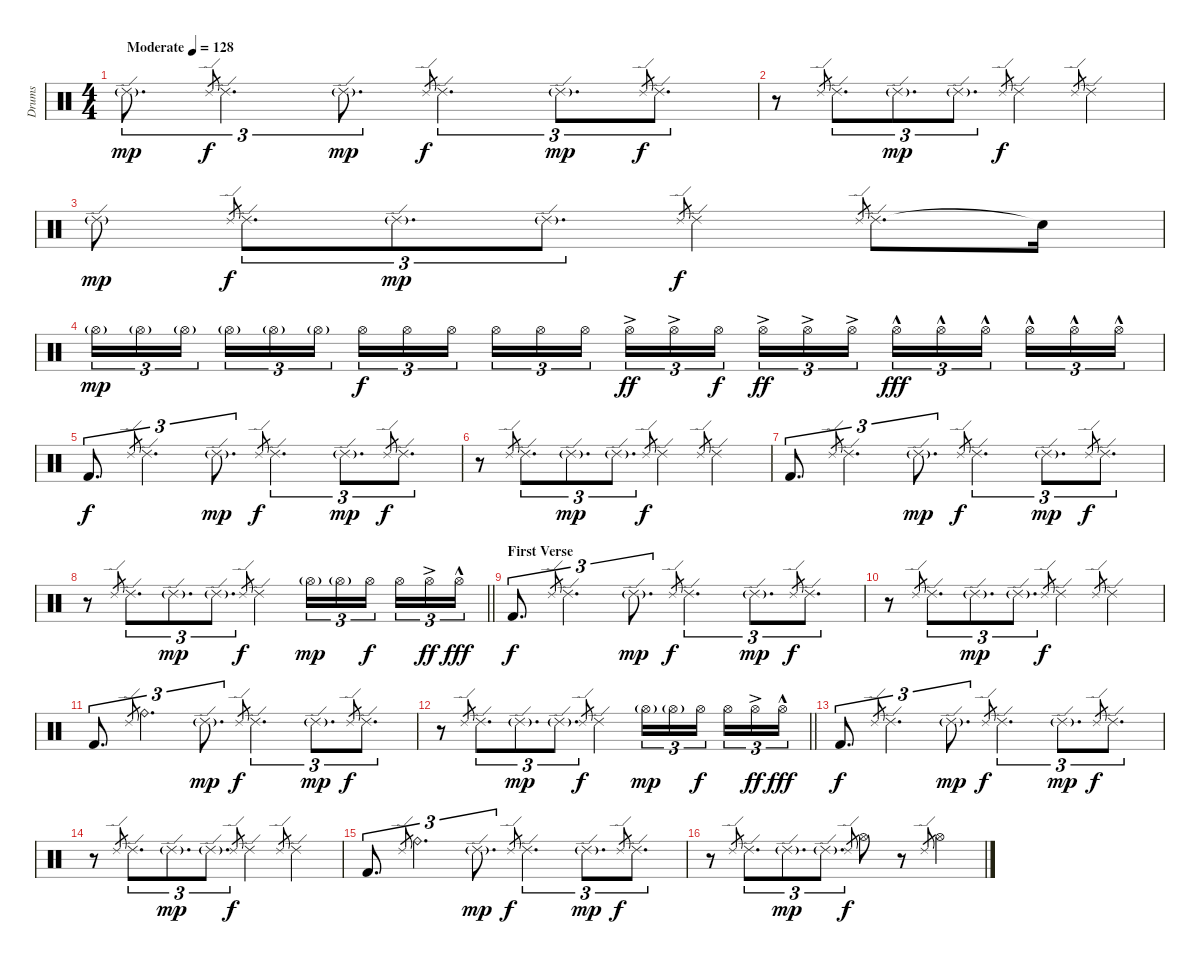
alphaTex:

\track ("Drums" "Drums") {instrument percussion}
\staff {score}
\articulation defaults
\ts (4 4)
\tempo (128 "Moderate")
\clef neutral
\ks c "Ride (edge) 2"{g}.8{d tu (3 2) dy mp volume 1} "Ride (edge) 2".8{gr dy f} "Ride (edge) 2".4{d tu (3 2) volume 9} "Ride (edge) 2"{g}.8{d tu (3 2) dy mp} "Ride (edge) 2".8{gr dy f} "Ride (edge) 2".4{d tu (3 2)} "Ride (edge) 2"{g}.8{d tu (3 2) dy mp} "Ride (edge) 2".8{gr dy f} "Ride (edge) 2".8{d tu (3 2)}
|
r.8 "Ride (edge) 2".8{gr} "Ride (edge) 2".8{d tu (3 2)} "Ride (edge) 2"{g}.8{d tu (3 2) dy mp} "Ride (edge) 2"{g}.8{d tu (3 2)} "Ride (edge) 2".8{gr dy f} "Ride (edge) 2".4 "Ride (edge) 2".8{gr} "Ride (edge) 2".4 |
"Ride (edge) 2"{g}.8{dy mp} "Ride (edge) 2".8{gr dy f} "Ride (edge) 2".8{d tu (3 2)} "Ride (edge) 2"{g}.8{d tu (3 2) dy mp} "Ride (edge) 2"{g}.8{d tu (3 2)} "Ride (edge) 2".8{gr dy f} "Ride (edge) 2".4 "Ride (edge) 2".8{gr} "Ride (edge) 2".8{d} "Snare (hit)"{t}.16{volume 6} |
"Hi-Hat (open)"{g}.16{tu (3 2) dy mp volume 11} "Hi-Hat (open)"{g}.16{tu (3 2)} "Hi-Hat (open)"{g}.16{tu (3 2) beam splitsecondary} "Hi-Hat (open)"{g}.16{tu (3 2)} "Hi-Hat (open)"{g}.16{tu (3 2)} "Hi-Hat (open)"{g}.16{tu (3 2)} "Hi-Hat (open)".16{tu (3 2) dy f} "Hi-Hat (open)".16{tu (3 2)} "Hi-Hat (open)".16{tu (3 2) beam splitsecondary} "Hi-Hat (open)".16{tu (3 2)} "Hi-Hat (open)".16{tu (3 2)} "Hi-Hat (open)".16{tu (3 2)} "Hi-Hat (open)"{ac}.16{tu (3 2) dy ff} "Hi-Hat (open)"{ac}.16{tu (3 2)} "Hi-Hat (open)".16{tu (3 2) dy f beam splitsecondary} "Hi-Hat (open)"{ac}.16{tu (3 2) dy ff} "Hi-Hat (open)"{ac}.16{tu (3 2)} "Hi-Hat (open)"{ac}.16{tu (3 2)} "Hi-Hat (open)"{hac}.16{tu (3 2) dy fff} "Hi-Hat (open)"{hac}.16{tu (3 2)} "Hi-Hat (open)"{hac}.16{tu (3 2) beam splitsecondary} "Hi-Hat (open)"{hac}.16{tu (3 2)} "Hi-Hat (open)"{hac}.16{tu (3 2)} "Hi-Hat (open)"{hac}.16{tu (3 2)} |
"Kick (hit) 2".8{d tu (3 2) dy f} "Ride (edge) 2".8{gr} "Ride (edge) 2".4{d tu (3 2)} "Ride (edge) 2"{g}.8{d tu (3 2) dy mp} "Ride (edge) 2".8{gr dy f} "Ride (edge) 2".4{d tu (3 2)} "Ride (edge) 2"{g}.8{d tu (3 2) dy mp} "Ride (edge) 2".8{gr dy f} "Ride (edge) 2".8{d tu (3 2)} |
r.8 "Ride (edge) 2".8{gr} "Ride (edge) 2".8{d tu (3 2)} "Ride (edge) 2"{g}.8{d tu (3 2) dy mp} "Ride (edge) 2"{g}.8{d tu (3 2)} "Ride (edge) 2".8{gr dy f} "Ride (edge) 2".4 "Ride (edge) 2".8{gr} "Ride (edge) 2".4 |
"Kick (hit) 2".8{d tu (3 2)} "Ride (edge) 2".8{gr} "Ride (edge) 2".4{d tu (3 2)} "Ride (edge) 2"{g}.8{d tu (3 2) dy mp} "Ride (edge) 2".8{gr dy f} "Ride (edge) 2".4{d tu (3 2)} "Ride (edge) 2"{g}.8{d tu (3 2) dy mp} "Ride (edge) 2".8{gr dy f} "Ride (edge) 2".8{d tu (3 2)} |
\barLineRight lightlight
r.8 "Ride (edge) 2".8{gr} "Ride (edge) 2".8{d tu (3 2)} "Ride (edge) 2"{g}.8{d tu (3 2) dy mp} "Ride (edge) 2"{g}.8{d tu (3 2)} "Ride (edge) 2".8{gr dy f} "Ride (edge) 2".4 "Hi-Hat (open)"{g}.16{tu (3 2) dy mp} "Hi-Hat (open)"{g}.16{tu (3 2)} "Hi-Hat (open)".16{tu (3 2) dy f beam splitsecondary} "Hi-Hat (open)".16{tu (3 2)} "Hi-Hat (open)"{ac}.16{tu (3 2) dy ff} "Hi-Hat (open)"{hac}.16{tu (3 2) dy fff} |
\section ("" "First Verse")
"Kick (hit) 2".8{d tu (3 2) dy f} "Ride (edge) 2".8{gr} "Ride (edge) 2".4{d tu (3 2)} "Ride (edge) 2"{g}.8{d tu (3 2) dy mp} "Ride (edge) 2".8{gr dy f} "Ride (edge) 2".4{d tu (3 2)} "Ride (edge) 2"{g}.8{d tu (3 2) dy mp} "Ride (edge) 2".8{gr dy f} "Ride (edge) 2".8{d tu (3 2)} |
r.8 "Ride (edge) 2".8{gr} "Ride (edge) 2".8{d tu (3 2)} "Ride (edge) 2"{g}.8{d tu (3 2) dy mp} "Ride (edge) 2"{g}.8{d tu (3 2)} "Ride (edge) 2".8{gr dy f} "Ride (edge) 2".4 "Ride (edge) 2".8{gr} "Ride (edge) 2".4 |
"Kick (hit) 2".8{d tu (3 2)} "Ride (edge) 2".8{gr} "Ride (bell)".4{d tu (3 2)} "Ride (edge) 2"{g}.8{d tu (3 2) dy mp} "Ride (edge) 2".8{gr dy f} "Ride (edge) 2".4{d tu (3 2)} "Ride (edge) 2"{g}.8{d tu (3 2) dy mp} "Ride (edge) 2".8{gr dy f} "Ride (edge) 2".8{d tu (3 2)} |
\barLineRight lightlight
r.8 "Ride (edge) 2".8{gr} "Ride (edge) 2".8{d tu (3 2)} "Ride (edge) 2"{g}.8{d tu (3 2) dy mp} "Ride (edge) 2"{g}.8{d tu (3 2)} "Ride (edge) 2".8{gr dy f} "Ride (edge) 2".4 "Hi-Hat (open)"{g}.16{tu (3 2) dy mp} "Hi-Hat (open)"{g}.16{tu (3 2)} "Hi-Hat (open)".16{tu (3 2) dy f beam splitsecondary} "Hi-Hat (open)".16{tu (3 2)} "Hi-Hat (open)"{ac}.16{tu (3 2) dy ff} "Hi-Hat (open)"{hac}.16{tu (3 2) dy fff} |
"Kick (hit) 2".8{d tu (3 2) dy f} "Ride (edge) 2".8{gr} "Ride (edge) 2".4{d tu (3 2)} "Ride (edge) 2"{g}.8{d tu (3 2) dy mp} "Ride (edge) 2".8{gr dy f} "Ride (edge) 2".4{d tu (3 2)} "Ride (edge) 2"{g}.8{d tu (3 2) dy mp} "Ride (edge) 2".8{gr dy f} "Ride (edge) 2".8{d tu (3 2)} |
r.8 "Ride (edge) 2".8{gr} "Ride (edge) 2".8{d tu (3 2)} "Ride (edge) 2"{g}.8{d tu (3 2) dy mp} "Ride (edge) 2"{g}.8{d tu (3 2)} "Ride (edge) 2".8{gr dy f} "Ride (edge) 2".4 "Ride (edge) 2".8{gr} "Ride (edge) 2".4 |
"Kick (hit) 2".8{d tu (3 2)} "Ride (edge) 2".8{gr} "Ride (bell)".4{d tu (3 2)} "Ride (edge) 2"{g}.8{d tu (3 2) dy mp} "Ride (edge) 2".8{gr dy f} "Ride (edge) 2".4{d tu (3 2)} "Ride (edge) 2"{g}.8{d tu (3 2) dy mp} "Ride (edge) 2".8{gr dy f} "Ride (edge) 2".8{d tu (3 2)} |
r.8 "Ride (edge) 2".8{gr} "Ride (edge) 2".8{d tu (3 2)} "Ride (edge) 2"{g}.8{d tu (3 2) dy mp} "Ride (edge) 2"{g}.8{d tu (3 2)} "Ride (edge) 2".8{gr dy f} "Hi-Hat (open)".8 r.8{volume 6} "Ride (edge) 2".8{gr} "Hi-Hat (open)".4{volume 13}
